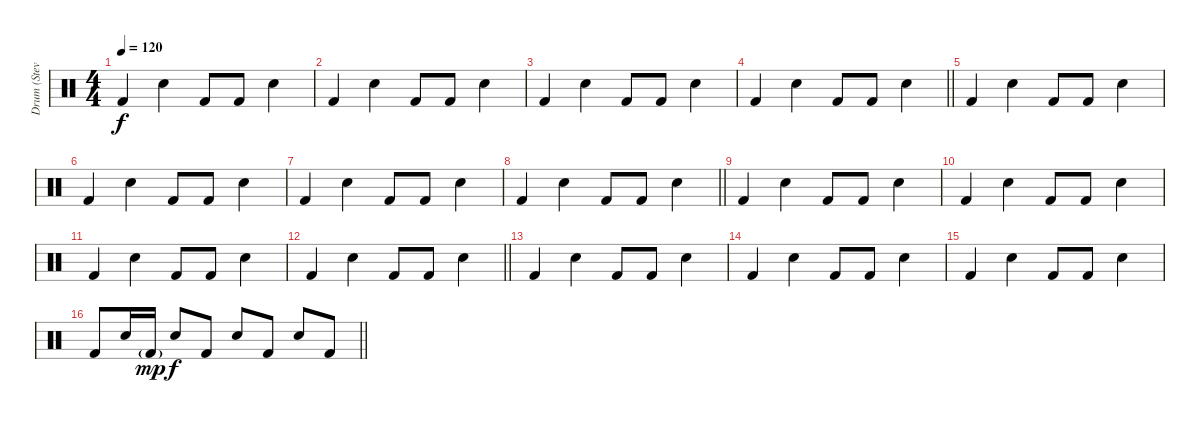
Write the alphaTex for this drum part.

\track ("Drum (Steven)" "Drum (Stev") {instrument percussion}
\staff {score}
\articulation defaults
\ts (4 4)
\tempo 120
\clef neutral
\ks c "Kick (hit) 2".4{dy f} "Snare (hit) 2".4 "Kick (hit) 2".8 "Kick (hit) 2".8 "Snare (hit) 2".4
|
"Kick (hit) 2".4 "Snare (hit) 2".4 "Kick (hit) 2".8 "Kick (hit) 2".8 "Snare (hit) 2".4 |
"Kick (hit) 2".4 "Snare (hit) 2".4 "Kick (hit) 2".8 "Kick (hit) 2".8 "Snare (hit) 2".4 |
\barLineRight lightlight "Kick (hit) 2".4 "Snare (hit) 2".4 "Kick (hit) 2".8 "Kick (hit) 2".8 "Snare (hit) 2".4
|
"Kick (hit) 2".4 "Snare (hit) 2".4 "Kick (hit) 2".8 "Kick (hit) 2".8 "Snare (hit) 2".4 |
"Kick (hit) 2".4 "Snare (hit) 2".4 "Kick (hit) 2".8 "Kick (hit) 2".8 "Snare (hit) 2".4 |
"Kick (hit) 2".4 "Snare (hit) 2".4 "Kick (hit) 2".8 "Kick (hit) 2".8 "Snare (hit) 2".4 |
\barLineRight lightlight "Kick (hit) 2".4 "Snare (hit) 2".4 "Kick (hit) 2".8 "Kick (hit) 2".8 "Snare (hit) 2".4
|
"Kick (hit) 2".4 "Snare (hit) 2".4 "Kick (hit) 2".8 "Kick (hit) 2".8 "Snare (hit) 2".4 |
"Kick (hit) 2".4 "Snare (hit) 2".4 "Kick (hit) 2".8 "Kick (hit) 2".8 "Snare (hit) 2".4 |
"Kick (hit) 2".4 "Snare (hit) 2".4 "Kick (hit) 2".8 "Kick (hit) 2".8 "Snare (hit) 2".4 |
\barLineRight lightlight "Kick (hit) 2".4 "Snare (hit) 2".4 "Kick (hit) 2".8 "Kick (hit) 2".8 "Snare (hit) 2".4
|
"Kick (hit) 2".4 "Snare (hit) 2".4 "Kick (hit) 2".8 "Kick (hit) 2".8 "Snare (hit) 2".4 |
"Kick (hit) 2".4 "Snare (hit) 2".4 "Kick (hit) 2".8 "Kick (hit) 2".8 "Snare (hit) 2".4 |
"Kick (hit) 2".4 "Snare (hit) 2".4 "Kick (hit) 2".8 "Kick (hit) 2".8 "Snare (hit) 2".4 |
\barLineRight lightlight "Kick (hit) 2".8 "Snare (hit) 2".16 "Kick (hit) 2"{g}.16{dy mp} "Snare (hit) 2".8{dy f} "Kick (hit) 2".8 "Snare (hit) 2".8 "Kick (hit) 2".8 "Snare (hit) 2".8 "Kick (hit) 2".8
